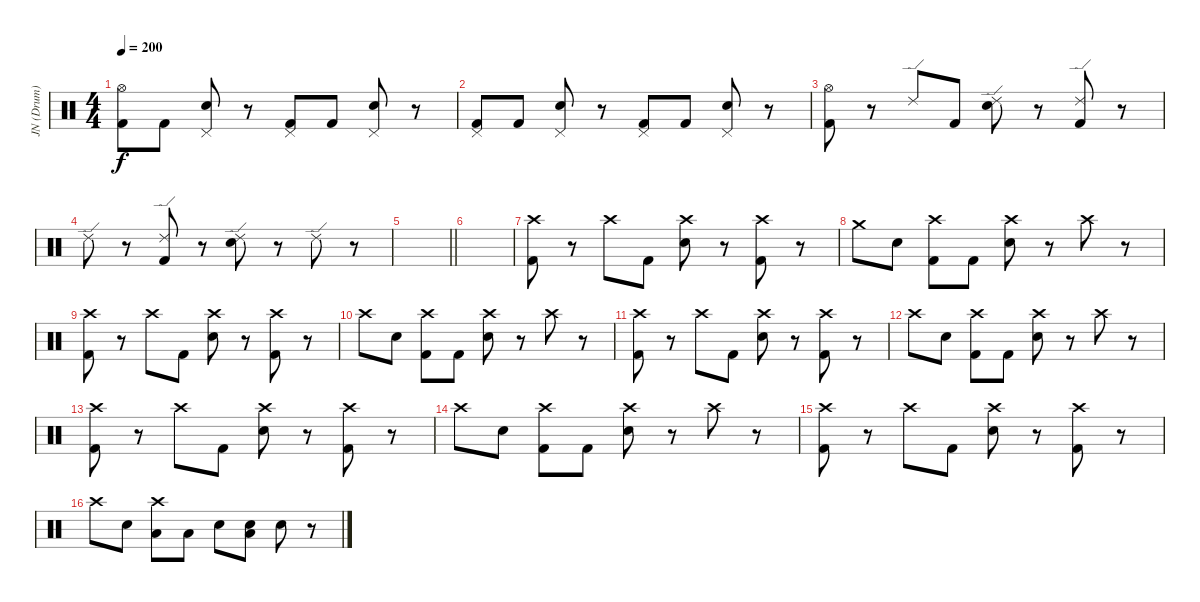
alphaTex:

\track ("JN (Drum)" "JN (Drum)") {instrument percussion}
\staff {score}
\articulation defaults
\ts (4 4)
\tempo 200
\clef neutral
\ks c
("Hi-Hat (open)" "Kick (hit) 2").8{dy f} "Kick (hit) 2".8 ("Pedal Hi-Hat (hit)" "Electric Snare (hit)").8 r.8 ("Pedal Hi-Hat (hit)" "Kick (hit) 2").8 "Kick (hit) 2".8 ("Pedal Hi-Hat (hit)" "Electric Snare (hit)").8 r.8 |
("Pedal Hi-Hat (hit)" "Kick (hit) 2").8 "Kick (hit) 2".8 ("Pedal Hi-Hat (hit)" "Electric Snare (hit)").8 r.8 ("Pedal Hi-Hat (hit)" "Kick (hit) 2").8 "Kick (hit) 2".8 ("Pedal Hi-Hat (hit)" "Electric Snare (hit)").8 r.8 |
("Hi-Hat (open)" "Kick (hit) 2").8 r.8 "Ride (edge) 2".8 "Kick (hit) 2".8 ("Ride (edge) 2" "Electric Snare (hit)").8 r.8 ("Ride (edge) 2" "Kick (hit) 2").8 r.8 |
"Ride (edge) 2".8 r.8 ("Ride (edge) 2" "Kick (hit) 2").8 r.8 ("Ride (edge) 2" "Electric Snare (hit)").8 r.8 "Ride (edge) 2".8 r.8 |
\barLineRight lightlight
|
|
("Crash high (hit)" "Kick (hit) 2").8 r.8 "Crash high (hit)".8 "Kick (hit) 2".8 ("Crash high (hit)" "Electric Snare (hit)").8 r.8 ("Crash high (hit)" "Kick (hit) 2").8 r.8 |
"Crash medium (hit)".8 "Electric Snare (hit)".8 ("Crash high (hit)" "Kick (hit) 2").8 "Kick (hit) 2".8 ("Crash high (hit)" "Electric Snare (hit)").8 r.8 "Crash high (hit)".8 r.8 |
("Crash high (hit)" "Kick (hit) 2").8 r.8 "Crash high (hit)".8 "Kick (hit) 2".8 ("Crash high (hit)" "Electric Snare (hit)").8 r.8 ("Crash high (hit)" "Kick (hit) 2").8 r.8 |
"Crash high (hit)".8 "Electric Snare (hit)".8 ("Crash high (hit)" "Kick (hit) 2").8 "Kick (hit) 2".8 ("Crash high (hit)" "Electric Snare (hit)").8 r.8 "Crash high (hit)".8 r.8 |
("Crash high (hit)" "Kick (hit) 2").8 r.8 "Crash high (hit)".8 "Kick (hit) 2".8 ("Crash high (hit)" "Electric Snare (hit)").8 r.8 ("Crash high (hit)" "Kick (hit) 2").8 r.8 |
"Crash high (hit)".8 "Electric Snare (hit)".8 ("Crash high (hit)" "Kick (hit) 2").8 "Kick (hit) 2".8 ("Crash high (hit)" "Electric Snare (hit)").8 r.8 "Crash high (hit)".8 r.8 |
("Crash high (hit)" "Kick (hit) 2").8 r.8 "Crash high (hit)".8 "Kick (hit) 2".8 ("Crash high (hit)" "Electric Snare (hit)").8 r.8 ("Crash high (hit)" "Kick (hit) 2").8 r.8 |
"Crash high (hit)".8 "Electric Snare (hit)".8 ("Crash high (hit)" "Kick (hit) 2").8 "Kick (hit) 2".8 ("Crash high (hit)" "Electric Snare (hit)").8 r.8 "Crash high (hit)".8 r.8 |
("Crash high (hit)" "Kick (hit) 2").8 r.8 "Crash high (hit)".8 "Kick (hit) 2".8 ("Crash high (hit)" "Electric Snare (hit)").8 r.8 ("Crash high (hit)" "Kick (hit) 2").8 r.8 |
"Crash high (hit)".8 "Electric Snare (hit)".8 ("Crash high (hit)" "Low Tom (hit)").8 "Low Tom (hit)".8 "Electric Snare (hit)".8 ("Electric Snare (hit)" "Low Tom (hit)").8 "Electric Snare (hit)".8 r.8
